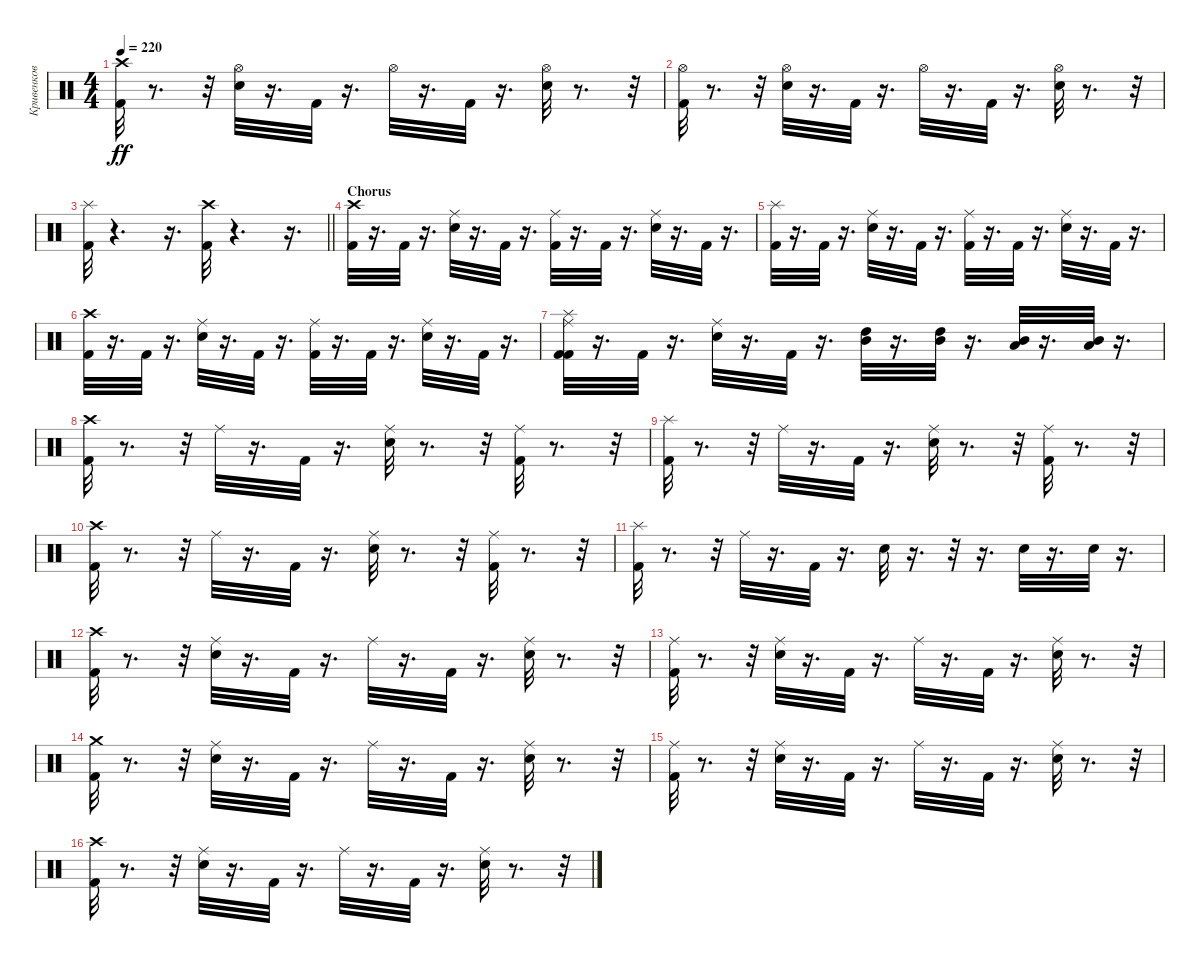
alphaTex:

\track ("Кривенков" "Кривенков") {instrument percussion}
\staff {score}
\articulation defaults
\ts (4 4)
\tempo 220
\clef neutral
\ks c
("Crash high (hit)" "Kick (hit) 2").32{dy ff} r.8{d} r.32 ("Hi-Hat (open)" "Electric Snare (hit)").32 r.16{d} "Kick (hit) 2".32 r.16{d} "Hi-Hat (open)".32 r.16{d} "Kick (hit) 2".32 r.16{d} ("Hi-Hat (open)" "Electric Snare (hit)").32 r.8{d} r.32 |
("Kick (hit) 2" "Hi-Hat (open)").32 r.8{d} r.32 ("Electric Snare (hit)" "Hi-Hat (open)").32 r.16{d} "Kick (hit) 2".32 r.16{d} "Hi-Hat (open)".32 r.16{d} "Kick (hit) 2".32 r.16{d} ("Hi-Hat (open)" "Electric Snare (hit)").32 r.8{d} r.32 |
\barLineRight lightlight
("Splash (hit)" "Kick (hit) 2").32 r.4{d} r.16{d} ("Crash high (hit)" "Kick (hit) 2").32 r.4{d} r.16{d} |
\section ("" "Chorus")
("Crash high (hit)" "Kick (hit) 2").32 r.16{d} "Kick (hit) 2".32 r.16{d} ("Ride (middle)" "Electric Snare (hit)").32 r.16{d} "Kick (hit) 2".32 r.16{d} ("Ride (middle)" "Kick (hit) 2").32 r.16{d} "Kick (hit) 2".32 r.16{d} ("Electric Snare (hit)" "Ride (middle)").32 r.16{d} "Kick (hit) 2".32 r.16{d} |
("Kick (hit) 2" "Splash (hit)").32 r.16{d} "Kick (hit) 2".32 r.16{d} ("Electric Snare (hit)" "Ride (middle)").32 r.16{d} "Kick (hit) 2".32 r.16{d} ("Kick (hit) 2" "Ride (middle)").32 r.16{d} "Kick (hit) 2".32 r.16{d} ("Electric Snare (hit)" "Ride (middle)").32 r.16{d} "Kick (hit) 2".32 r.16{d} |
("Crash high (hit)" "Kick (hit) 2").32 r.16{d} "Kick (hit) 2".32 r.16{d} ("Ride (middle)" "Electric Snare (hit)").32 r.16{d} "Kick (hit) 2".32 r.16{d} ("Ride (middle)" "Kick (hit) 2").32 r.16{d} "Kick (hit) 2".32 r.16{d} ("Electric Snare (hit)" "Ride (middle)").32 r.16{d} "Kick (hit) 2".32 r.16{d} |
("Ride (middle)" "Kick (hit) 2" "Kick (hit) 2" "Splash (hit)").32 r.16{d} "Kick (hit) 2".32 r.16{d} ("Ride (middle)" "Electric Snare (hit)").32 r.16{d} "Kick (hit) 2".32 r.16{d} ("Mid Tom (hit)" "High Tom (hit)").32 r.16{d} ("Mid Tom (hit)" "High Tom (hit)").32 r.16{d} ("Low Tom (hit)" "Mid Tom (hit)").32 r.16{d} ("Low Tom (hit)" "Mid Tom (hit)").32 r.16{d} |
("Kick (hit) 2" "Crash high (hit)").32 r.8{d} r.32 "Ride (middle)".32 r.16{d} "Kick (hit) 2".32 r.16{d} ("Electric Snare (hit)" "Ride (middle)").32 r.8{d} r.32 ("Kick (hit) 2" "Ride (middle)").32 r.8{d} r.32 |
("Splash (hit)" "Kick (hit) 2").32 r.8{d} r.32 "Ride (middle)".32 r.16{d} "Kick (hit) 2".32 r.16{d} ("Ride (middle)" "Electric Snare (hit)").32 r.8{d} r.32 ("Ride (middle)" "Kick (hit) 2").32 r.8{d} r.32 |
("Kick (hit) 2" "Crash high (hit)").32 r.8{d} r.32 "Ride (middle)".32 r.16{d} "Kick (hit) 2".32 r.16{d} ("Electric Snare (hit)" "Ride (middle)").32 r.8{d} r.32 ("Kick (hit) 2" "Ride (middle)").32 r.8{d} r.32 |
("Splash (hit)" "Kick (hit) 2").32 r.8{d} r.32 "Ride (middle)".32 r.16{d} "Kick (hit) 2".32 r.16{d} "Electric Snare (hit)".32 r.16{d} r.32 r.16{d} "Electric Snare (hit)".32 r.16{d} "Electric Snare (hit)".32 r.16{d} |
("Crash high (hit)" "Kick (hit) 2").32 r.8{d} r.32 ("Ride (middle)" "Electric Snare (hit)").32 r.16{d} "Kick (hit) 2".32 r.16{d} "Ride (middle)".32 r.16{d} "Kick (hit) 2".32 r.16{d} ("Ride (middle)" "Electric Snare (hit)").32 r.8{d} r.32 |
("Kick (hit) 2" "Ride (middle)").32 r.8{d} r.32 ("Electric Snare (hit)" "Ride (middle)").32 r.16{d} "Kick (hit) 2".32 r.16{d} "Ride (middle)".32 r.16{d} "Kick (hit) 2".32 r.16{d} ("Electric Snare (hit)" "Ride (middle)").32 r.8{d} r.32 |
("Crash medium (hit)" "Kick (hit) 2").32 r.8{d} r.32 ("Ride (middle)" "Electric Snare (hit)").32 r.16{d} "Kick (hit) 2".32 r.16{d} "Ride (middle)".32 r.16{d} "Kick (hit) 2".32 r.16{d} ("Ride (middle)" "Electric Snare (hit)").32 r.8{d} r.32 |
("Kick (hit) 2" "Ride (middle)").32 r.8{d} r.32 ("Electric Snare (hit)" "Ride (middle)").32 r.16{d} "Kick (hit) 2".32 r.16{d} "Ride (middle)".32 r.16{d} "Kick (hit) 2".32 r.16{d} ("Electric Snare (hit)" "Ride (middle)").32 r.8{d} r.32 |
("Crash high (hit)" "Kick (hit) 2").32 r.8{d} r.32 ("Ride (middle)" "Electric Snare (hit)").32 r.16{d} "Kick (hit) 2".32 r.16{d} "Ride (middle)".32 r.16{d} "Kick (hit) 2".32 r.16{d} ("Ride (middle)" "Electric Snare (hit)").32 r.8{d} r.32
